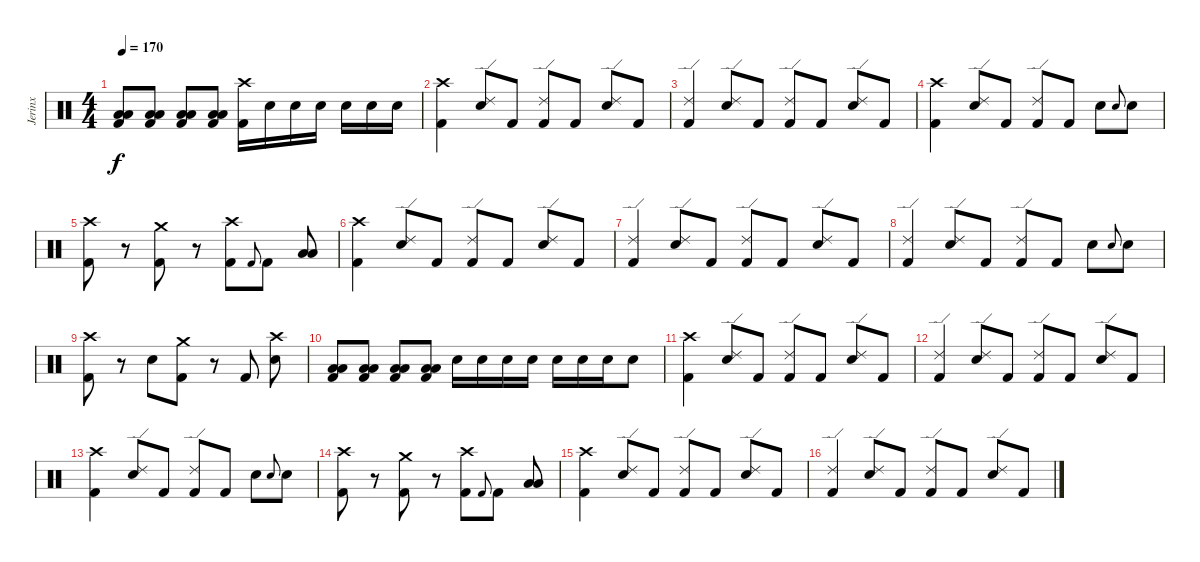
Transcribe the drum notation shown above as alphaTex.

\track ("Jerinx" "Jerinx") {instrument percussion}
\staff {score}
\articulation defaults
\ts (4 4)
\tempo 170
\clef neutral
\ks c
("Kick (hit) 2" "Low Floor Tom (hit)" "Low Tom (hit)").8{dy f} ("Kick (hit) 2" "Low Floor Tom (hit)" "Low Tom (hit)").8 ("Kick (hit) 2" "Low Floor Tom (hit)" "Low Tom (hit)").8 ("Kick (hit) 2" "Low Floor Tom (hit)" "Low Tom (hit)").8 ("Kick (hit) 2" "Crash high (hit)").16 "Electric Snare (hit)".16 "Electric Snare (hit)".16 "Electric Snare (hit)".16 "Electric Snare (hit)".16 "Electric Snare (hit)".16 "Electric Snare (hit)".16 |
("Kick (hit) 2" "Crash high (hit)").4 ("Electric Snare (hit)" "Ride (edge) 2").8 "Kick (hit) 2".8 ("Kick (hit) 2" "Ride (edge) 2").8 "Kick (hit) 2".8 ("Electric Snare (hit)" "Ride (edge) 2").8 "Kick (hit) 2".8 |
("Kick (hit) 2" "Ride (edge) 2").4 ("Electric Snare (hit)" "Ride (edge) 2").8 "Kick (hit) 2".8 ("Kick (hit) 2" "Ride (edge) 2").8 "Kick (hit) 2".8 ("Electric Snare (hit)" "Ride (edge) 2").8 "Kick (hit) 2".8 |
("Kick (hit) 2" "Crash high (hit)").4 ("Electric Snare (hit)" "Ride (edge) 2").8 "Kick (hit) 2".8 ("Kick (hit) 2" "Ride (edge) 2").8 "Kick (hit) 2".8 "Electric Snare (hit)".8 "Electric Snare (hit)".8{gr onbeat} "Electric Snare (hit)".8 |
("Kick (hit) 2" "Crash high (hit)").8 r.8 ("Kick (hit) 2" "Crash medium (hit)").8 r.8 ("Kick (hit) 2" "Crash high (hit)").8 "Kick (hit) 2".8{gr onbeat} "Kick (hit) 2".8 ("Low Floor Tom (hit)" "Low Tom (hit)").8 |
("Kick (hit) 2" "Crash high (hit)").4 ("Electric Snare (hit)" "Ride (edge) 2").8 "Kick (hit) 2".8 ("Kick (hit) 2" "Ride (edge) 2").8 "Kick (hit) 2".8 ("Electric Snare (hit)" "Ride (edge) 2").8 "Kick (hit) 2".8 |
("Kick (hit) 2" "Ride (edge) 2").4 ("Electric Snare (hit)" "Ride (edge) 2").8 "Kick (hit) 2".8 ("Kick (hit) 2" "Ride (edge) 2").8 "Kick (hit) 2".8 ("Electric Snare (hit)" "Ride (edge) 2").8 "Kick (hit) 2".8 |
("Kick (hit) 2" "Ride (edge) 2").4 ("Electric Snare (hit)" "Ride (edge) 2").8 "Kick (hit) 2".8 ("Kick (hit) 2" "Ride (edge) 2").8 "Kick (hit) 2".8 "Electric Snare (hit)".8 "Electric Snare (hit)".8{gr onbeat} "Electric Snare (hit)".8 |
("Kick (hit) 2" "Crash high (hit)").8 r.8 "Electric Snare (hit)".8 ("Kick (hit) 2" "Crash medium (hit)").8 r.8 "Kick (hit) 2".8 ("Electric Snare (hit)" "Crash high (hit)").8 |
("Kick (hit) 2" "Low Floor Tom (hit)" "Low Tom (hit)").8 ("Kick (hit) 2" "Low Floor Tom (hit)" "Low Tom (hit)").8 ("Kick (hit) 2" "Low Floor Tom (hit)" "Low Tom (hit)").8 ("Kick (hit) 2" "Low Floor Tom (hit)" "Low Tom (hit)").8 "Electric Snare (hit)".16 "Electric Snare (hit)".16 "Electric Snare (hit)".16 "Electric Snare (hit)".16 "Electric Snare (hit)".16 "Electric Snare (hit)".16 "Electric Snare (hit)".16 "Electric Snare (hit)".8 |
("Kick (hit) 2" "Crash high (hit)").4 ("Electric Snare (hit)" "Ride (edge) 2").8 "Kick (hit) 2".8 ("Kick (hit) 2" "Ride (edge) 2").8 "Kick (hit) 2".8 ("Electric Snare (hit)" "Ride (edge) 2").8 "Kick (hit) 2".8 |
("Kick (hit) 2" "Ride (edge) 2").4 ("Electric Snare (hit)" "Ride (edge) 2").8 "Kick (hit) 2".8 ("Kick (hit) 2" "Ride (edge) 2").8 "Kick (hit) 2".8 ("Electric Snare (hit)" "Ride (edge) 2").8 "Kick (hit) 2".8 |
("Kick (hit) 2" "Crash high (hit)").4 ("Electric Snare (hit)" "Ride (edge) 2").8 "Kick (hit) 2".8 ("Kick (hit) 2" "Ride (edge) 2").8 "Kick (hit) 2".8 "Electric Snare (hit)".8 "Electric Snare (hit)".8{gr onbeat} "Electric Snare (hit)".8 |
("Kick (hit) 2" "Crash high (hit)").8 r.8 ("Kick (hit) 2" "Crash medium (hit)").8 r.8 ("Kick (hit) 2" "Crash high (hit)").8 "Kick (hit) 2".8{gr onbeat} "Kick (hit) 2".8 ("Low Floor Tom (hit)" "Low Tom (hit)").8 |
("Kick (hit) 2" "Crash high (hit)").4 ("Electric Snare (hit)" "Ride (edge) 2").8 "Kick (hit) 2".8 ("Kick (hit) 2" "Ride (edge) 2").8 "Kick (hit) 2".8 ("Electric Snare (hit)" "Ride (edge) 2").8 "Kick (hit) 2".8 |
("Kick (hit) 2" "Ride (edge) 2").4 ("Electric Snare (hit)" "Ride (edge) 2").8 "Kick (hit) 2".8 ("Kick (hit) 2" "Ride (edge) 2").8 "Kick (hit) 2".8 ("Electric Snare (hit)" "Ride (edge) 2").8 "Kick (hit) 2".8
